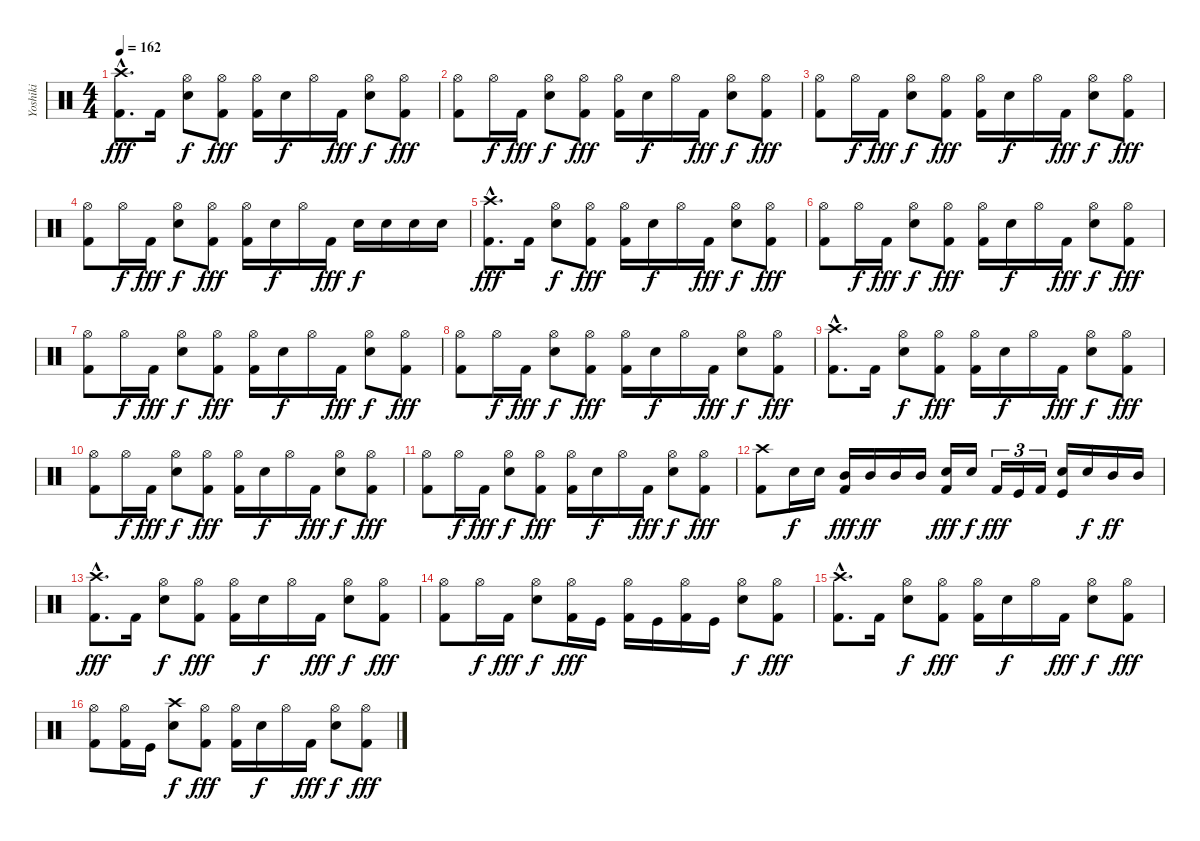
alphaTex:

\track ("Yoshiki" "Yoshiki") {instrument percussion}
\staff {score}
\articulation defaults
\ts (4 4)
\tempo 162
\clef neutral
\ks c
("Crash high (hit)"{hac} "Kick (hit) 2"{hac}).8{d dy fff} "Kick (hit) 2".16 ("Hi-Hat (open)" "Electric Snare (hit)").8{dy f} ("Hi-Hat (open)" "Kick (hit) 2").8{dy fff} ("Hi-Hat (open)" "Kick (hit) 2").16 "Electric Snare (hit)".16{dy f} "Hi-Hat (open)".16 "Kick (hit) 2".16{dy fff} ("Hi-Hat (open)" "Electric Snare (hit)").8{dy f} ("Hi-Hat (open)" "Kick (hit) 2").8{dy fff} |
("Hi-Hat (open)" "Kick (hit) 2").8 "Hi-Hat (open)".16{dy f} "Kick (hit) 2".16{dy fff} ("Hi-Hat (open)" "Electric Snare (hit)").8{dy f} ("Hi-Hat (open)" "Kick (hit) 2").8{dy fff} ("Hi-Hat (open)" "Kick (hit) 2").16 "Electric Snare (hit)".16{dy f} "Hi-Hat (open)".16 "Kick (hit) 2".16{dy fff} ("Hi-Hat (open)" "Electric Snare (hit)").8{dy f} ("Hi-Hat (open)" "Kick (hit) 2").8{dy fff} |
("Hi-Hat (open)" "Kick (hit) 2").8 "Hi-Hat (open)".16{dy f} "Kick (hit) 2".16{dy fff} ("Hi-Hat (open)" "Electric Snare (hit)").8{dy f} ("Hi-Hat (open)" "Kick (hit) 2").8{dy fff} ("Hi-Hat (open)" "Kick (hit) 2").16 "Electric Snare (hit)".16{dy f} "Hi-Hat (open)".16 "Kick (hit) 2".16{dy fff} ("Hi-Hat (open)" "Electric Snare (hit)").8{dy f} ("Hi-Hat (open)" "Kick (hit) 2").8{dy fff} |
("Hi-Hat (open)" "Kick (hit) 2").8 "Hi-Hat (open)".16{dy f} "Kick (hit) 2".16{dy fff} ("Hi-Hat (open)" "Electric Snare (hit)").8{dy f} ("Hi-Hat (open)" "Kick (hit) 2").8{dy fff} ("Hi-Hat (open)" "Kick (hit) 2").16 "Electric Snare (hit)".16{dy f} "Hi-Hat (open)".16 "Kick (hit) 2".16{dy fff} "Electric Snare (hit)".16{dy f} "Electric Snare (hit)".16 "Electric Snare (hit)".16 "Electric Snare (hit)".16 |
("Crash high (hit)"{hac} "Kick (hit) 2"{hac}).8{d dy fff} "Kick (hit) 2".16 ("Hi-Hat (open)" "Electric Snare (hit)").8{dy f} ("Hi-Hat (open)" "Kick (hit) 2").8{dy fff} ("Hi-Hat (open)" "Kick (hit) 2").16 "Electric Snare (hit)".16{dy f} "Hi-Hat (open)".16 "Kick (hit) 2".16{dy fff} ("Hi-Hat (open)" "Electric Snare (hit)").8{dy f} ("Hi-Hat (open)" "Kick (hit) 2").8{dy fff} |
("Hi-Hat (open)" "Kick (hit) 2").8 "Hi-Hat (open)".16{dy f} "Kick (hit) 2".16{dy fff} ("Hi-Hat (open)" "Electric Snare (hit)").8{dy f} ("Hi-Hat (open)" "Kick (hit) 2").8{dy fff} ("Hi-Hat (open)" "Kick (hit) 2").16 "Electric Snare (hit)".16{dy f} "Hi-Hat (open)".16 "Kick (hit) 2".16{dy fff} ("Hi-Hat (open)" "Electric Snare (hit)").8{dy f} ("Hi-Hat (open)" "Kick (hit) 2").8{dy fff} |
("Hi-Hat (open)" "Kick (hit) 2").8 "Hi-Hat (open)".16{dy f} "Kick (hit) 2".16{dy fff} ("Hi-Hat (open)" "Electric Snare (hit)").8{dy f} ("Hi-Hat (open)" "Kick (hit) 2").8{dy fff} ("Hi-Hat (open)" "Kick (hit) 2").16 "Electric Snare (hit)".16{dy f} "Hi-Hat (open)".16 "Kick (hit) 2".16{dy fff} ("Hi-Hat (open)" "Electric Snare (hit)").8{dy f} ("Hi-Hat (open)" "Kick (hit) 2").8{dy fff} |
("Hi-Hat (open)" "Kick (hit) 2").8 "Hi-Hat (open)".16{dy f} "Kick (hit) 2".16{dy fff} ("Hi-Hat (open)" "Electric Snare (hit)").8{dy f} ("Hi-Hat (open)" "Kick (hit) 2").8{dy fff} ("Hi-Hat (open)" "Kick (hit) 2").16 "Electric Snare (hit)".16{dy f} "Hi-Hat (open)".16 "Kick (hit) 2".16{dy fff} ("Hi-Hat (open)" "Electric Snare (hit)").8{dy f} ("Hi-Hat (open)" "Kick (hit) 2").8{dy fff} |
("Crash high (hit)"{hac} "Kick (hit) 2"{hac}).8{d} "Kick (hit) 2".16 ("Hi-Hat (open)" "Electric Snare (hit)").8{dy f} ("Hi-Hat (open)" "Kick (hit) 2").8{dy fff} ("Hi-Hat (open)" "Kick (hit) 2").16 "Electric Snare (hit)".16{dy f} "Hi-Hat (open)".16 "Kick (hit) 2".16{dy fff} ("Hi-Hat (open)" "Electric Snare (hit)").8{dy f} ("Hi-Hat (open)" "Kick (hit) 2").8{dy fff} |
("Hi-Hat (open)" "Kick (hit) 2").8 "Hi-Hat (open)".16{dy f} "Kick (hit) 2".16{dy fff} ("Hi-Hat (open)" "Electric Snare (hit)").8{dy f} ("Hi-Hat (open)" "Kick (hit) 2").8{dy fff} ("Hi-Hat (open)" "Kick (hit) 2").16 "Electric Snare (hit)".16{dy f} "Hi-Hat (open)".16 "Kick (hit) 2".16{dy fff} ("Hi-Hat (open)" "Electric Snare (hit)").8{dy f} ("Hi-Hat (open)" "Kick (hit) 2").8{dy fff} |
("Hi-Hat (open)" "Kick (hit) 2").8 "Hi-Hat (open)".16{dy f} "Kick (hit) 2".16{dy fff} ("Hi-Hat (open)" "Electric Snare (hit)").8{dy f} ("Hi-Hat (open)" "Kick (hit) 2").8{dy fff} ("Hi-Hat (open)" "Kick (hit) 2").16 "Electric Snare (hit)".16{dy f} "Hi-Hat (open)".16 "Kick (hit) 2".16{dy fff} ("Hi-Hat (open)" "Electric Snare (hit)").8{dy f} ("Hi-Hat (open)" "Kick (hit) 2").8{dy fff} |
("Crash high (hit)" "Kick (hit) 2").8 "Electric Snare (hit)".16{dy f} "Electric Snare (hit)".16 ("Mid Tom (hit)" "Kick (hit) 2").16{dy fff} "Mid Tom (hit)".16{dy ff} "Mid Tom (hit)".16 "Mid Tom (hit)".16 ("Electric Snare (hit)" "Kick (hit) 2").16{dy fff} "Electric Snare (hit)".16{dy f} "Kick (hit) 2".16{tu (3 2) dy fff} "Kick (hit)".16{tu (3 2)} "Kick (hit) 2".16{tu (3 2)} ("Electric Snare (hit)" "Kick (hit)").16 "Electric Snare (hit)".16{dy f} "Mid Tom (hit)".16{dy ff} "Mid Tom (hit)".16 |
("Crash high (hit)"{hac} "Kick (hit) 2"{hac}).8{d dy fff} "Kick (hit) 2".16 ("Hi-Hat (open)" "Electric Snare (hit)").8{dy f} ("Hi-Hat (open)" "Kick (hit) 2").8{dy fff} ("Hi-Hat (open)" "Kick (hit) 2").16 "Electric Snare (hit)".16{dy f} "Hi-Hat (open)".16 "Kick (hit) 2".16{dy fff} ("Hi-Hat (open)" "Electric Snare (hit)").8{dy f} ("Hi-Hat (open)" "Kick (hit) 2").8{dy fff} |
("Hi-Hat (open)" "Kick (hit) 2").8 "Hi-Hat (open)".16{dy f} "Kick (hit) 2".16{dy fff} ("Hi-Hat (open)" "Electric Snare (hit)").8{dy f} ("Hi-Hat (open)" "Kick (hit) 2").16{dy fff} "Kick (hit)".16 ("Hi-Hat (open)" "Kick (hit) 2").16 "Kick (hit)".16 ("Hi-Hat (open)" "Kick (hit) 2").16 "Kick (hit)".16 ("Hi-Hat (open)" "Electric Snare (hit)").8{dy f} ("Hi-Hat (open)" "Kick (hit) 2").8{dy fff} |
("Crash high (hit)"{hac} "Kick (hit) 2"{hac}).8{d} "Kick (hit) 2".16 ("Hi-Hat (open)" "Electric Snare (hit)").8{dy f} ("Hi-Hat (open)" "Kick (hit) 2").8{dy fff} ("Hi-Hat (open)" "Kick (hit) 2").16 "Electric Snare (hit)".16{dy f} "Hi-Hat (open)".16 "Kick (hit) 2".16{dy fff} ("Hi-Hat (open)" "Electric Snare (hit)").8{dy f} ("Hi-Hat (open)" "Kick (hit) 2").8{dy fff} |
("Hi-Hat (open)" "Kick (hit) 2").8 ("Hi-Hat (open)" "Kick (hit) 2").16 "Kick (hit)".16 ("Crash high (hit)" "Electric Snare (hit)").8{dy f} ("Hi-Hat (open)" "Kick (hit) 2").8{dy fff} ("Hi-Hat (open)" "Kick (hit) 2").16 "Electric Snare (hit)".16{dy f} "Hi-Hat (open)".16 "Kick (hit) 2".16{dy fff} ("Hi-Hat (open)" "Electric Snare (hit)").8{dy f} ("Hi-Hat (open)" "Kick (hit) 2").8{dy fff}
